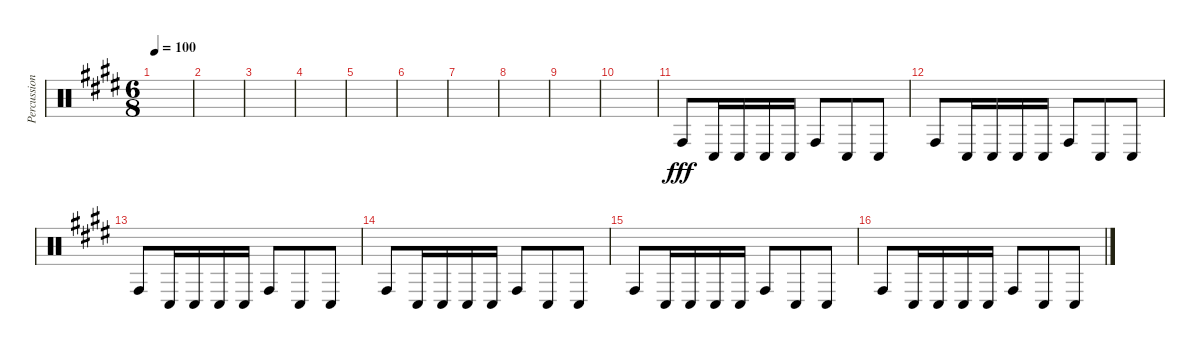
\track ("Percussion" "Percussion") {instrument percussion}
\staff {score}
\articulation defaults
\ts (6 8)
\tempo 100
\clef neutral
\ks c#minor
|
|
|
|
|
|
|
|
|
|
"Conga high (hit)".8{dy fff} "Conga low (hit)".16 "Conga low (hit)".16 "Conga low (hit)".16 "Conga low (hit)".16 "Conga high (hit)".8 "Conga low (hit)".8 "Conga low (hit)".8 |
"Conga high (hit)".8 "Conga low (hit)".16 "Conga low (hit)".16 "Conga low (hit)".16 "Conga low (hit)".16 "Conga high (hit)".8 "Conga low (hit)".8 "Conga low (hit)".8 |
"Conga high (hit)".8 "Conga low (hit)".16 "Conga low (hit)".16 "Conga low (hit)".16 "Conga low (hit)".16 "Conga high (hit)".8 "Conga low (hit)".8 "Conga low (hit)".8 |
"Conga high (hit)".8 "Conga low (hit)".16 "Conga low (hit)".16 "Conga low (hit)".16 "Conga low (hit)".16 "Conga high (hit)".8 "Conga low (hit)".8 "Conga low (hit)".8 |
"Conga high (hit)".8 "Conga low (hit)".16 "Conga low (hit)".16 "Conga low (hit)".16 "Conga low (hit)".16 "Conga high (hit)".8 "Conga low (hit)".8 "Conga low (hit)".8 |
"Conga high (hit)".8 "Conga low (hit)".16 "Conga low (hit)".16 "Conga low (hit)".16 "Conga low (hit)".16 "Conga high (hit)".8 "Conga low (hit)".8 "Conga low (hit)".8
